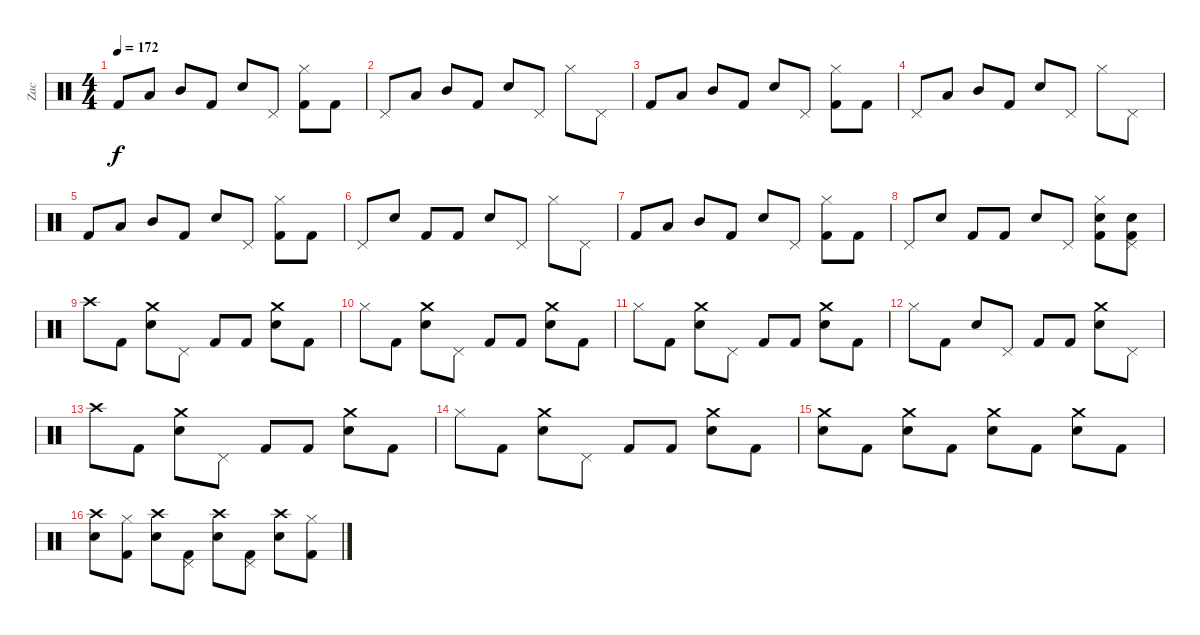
\track ("Zac" "Zac") {instrument percussion}
\staff {score}
\articulation defaults
\ts (4 4)
\tempo 172
\clef neutral
\ks c "Kick (hit) 2".8{dy f} "Low Tom (hit)".8 "Mid Tom (hit)".8 "Kick (hit) 2".8 "Electric Snare (hit)".8 "Pedal Hi-Hat (hit)".8
("Hi-Hat (closed)" "Kick (hit) 2").8 "Kick (hit) 2".8 |
"Pedal Hi-Hat (hit)".8 "Low Tom (hit)".8 "Mid Tom (hit)".8 "Kick (hit) 2".8 "Electric Snare (hit)".8 "Pedal Hi-Hat (hit)".8 "Hi-Hat (closed)".8 "Pedal Hi-Hat (hit)".8 |
"Kick (hit) 2".8 "Low Tom (hit)".8 "Mid Tom (hit)".8 "Kick (hit) 2".8 "Electric Snare (hit)".8 "Pedal Hi-Hat (hit)".8 ("Hi-Hat (closed)" "Kick (hit) 2").8 "Kick (hit) 2".8 |
"Pedal Hi-Hat (hit)".8 "Low Tom (hit)".8 "Mid Tom (hit)".8 "Kick (hit) 2".8 "Electric Snare (hit)".8 "Pedal Hi-Hat (hit)".8 "Hi-Hat (closed)".8 "Pedal Hi-Hat (hit)".8 |
"Kick (hit) 2".8 "Low Tom (hit)".8 "Mid Tom (hit)".8 "Kick (hit) 2".8 "Electric Snare (hit)".8 "Pedal Hi-Hat (hit)".8 ("Hi-Hat (closed)" "Kick (hit) 2").8 "Kick (hit) 2".8 |
"Pedal Hi-Hat (hit)".8 "Electric Snare (hit)".8 "Kick (hit) 2".8 "Kick (hit) 2".8 "Electric Snare (hit)".8 "Pedal Hi-Hat (hit)".8 "Hi-Hat (closed)".8 "Pedal Hi-Hat (hit)".8 |
"Kick (hit) 2".8 "Low Tom (hit)".8 "Mid Tom (hit)".8 "Kick (hit) 2".8 "Electric Snare (hit)".8 "Pedal Hi-Hat (hit)".8 ("Hi-Hat (closed)" "Kick (hit) 2").8 "Kick (hit) 2".8 |
"Pedal Hi-Hat (hit)".8 "Electric Snare (hit)".8 "Kick (hit) 2".8 "Kick (hit) 2".8 "Electric Snare (hit)".8 "Pedal Hi-Hat (hit)".8 ("Hi-Hat (closed)" "Electric Snare (hit)" "Kick (hit) 2").8 ("Pedal Hi-Hat (hit)" "Electric Snare (hit)" "Kick (hit) 2").8 |
"Crash high (hit)".8 "Kick (hit) 2".8 ("Crash medium (hit)" "Electric Snare (hit)").8 "Pedal Hi-Hat (hit)".8 "Kick (hit) 2".8 "Kick (hit) 2".8 ("Crash medium (hit)" "Electric Snare (hit)").8 "Kick (hit) 2".8 |
"Hi-Hat (closed)".8 "Kick (hit) 2".8 ("Crash medium (hit)" "Electric Snare (hit)").8 "Pedal Hi-Hat (hit)".8 "Kick (hit) 2".8 "Kick (hit) 2".8 ("Crash medium (hit)" "Electric Snare (hit)").8 "Kick (hit) 2".8 |
"Hi-Hat (closed)".8 "Kick (hit) 2".8 ("Crash medium (hit)" "Electric Snare (hit)").8 "Pedal Hi-Hat (hit)".8 "Kick (hit) 2".8 "Kick (hit) 2".8 ("Crash medium (hit)" "Electric Snare (hit)").8 "Kick (hit) 2".8 |
"Hi-Hat (closed)".8 "Kick (hit) 2".8 "Electric Snare (hit)".8 "Pedal Hi-Hat (hit)".8 "Kick (hit) 2".8 "Kick (hit) 2".8 ("Crash medium (hit)" "Electric Snare (hit)").8 "Pedal Hi-Hat (hit)".8 |
"Crash high (hit)".8 "Kick (hit) 2".8 ("Crash medium (hit)" "Electric Snare (hit)").8 "Pedal Hi-Hat (hit)".8 "Kick (hit) 2".8 "Kick (hit) 2".8 ("Crash medium (hit)" "Electric Snare (hit)").8 "Kick (hit) 2".8 |
"Hi-Hat (closed)".8 "Kick (hit) 2".8 ("Crash medium (hit)" "Electric Snare (hit)").8 "Pedal Hi-Hat (hit)".8 "Kick (hit) 2".8 "Kick (hit) 2".8 ("Crash medium (hit)" "Electric Snare (hit)").8 "Kick (hit) 2".8 |
("Crash medium (hit)" "Electric Snare (hit)").8 "Kick (hit) 2".8 ("Crash medium (hit)" "Electric Snare (hit)").8 "Kick (hit) 2".8 ("Crash medium (hit)" "Electric Snare (hit)").8 "Kick (hit) 2".8 ("Crash medium (hit)" "Electric Snare (hit)").8 "Kick (hit) 2".8 |
("Crash high (hit)" "Electric Snare (hit)").8 ("Hi-Hat (closed)" "Kick (hit) 2").8 ("Crash high (hit)" "Electric Snare (hit)").8 ("Pedal Hi-Hat (hit)" "Kick (hit) 2").8 ("Crash high (hit)" "Electric Snare (hit)").8 ("Pedal Hi-Hat (hit)" "Kick (hit) 2").8 ("Crash high (hit)" "Electric Snare (hit)").8 ("Hi-Hat (closed)" "Kick (hit) 2").8
